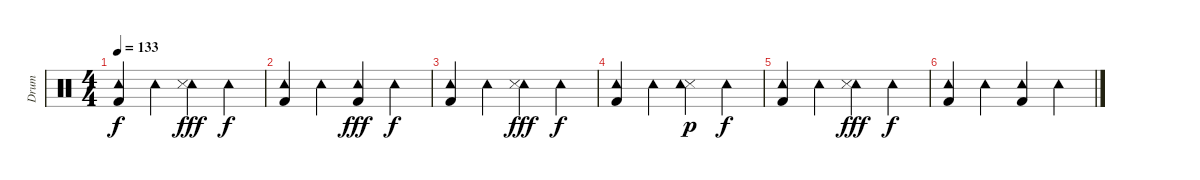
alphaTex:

\track ("Drum" "Drum") {instrument percussion}
\staff {score}
\articulation defaults
\ts (4 4)
\tempo 133
\clef neutral
\ks c
("Tambourine (hit)" "Kick (hit) 2").4{dy f} "Tambourine (hit)".4 ("Tambourine (hit)" "Snare (side stick) 3").4{dy fff} "Tambourine (hit)".4{dy f} |
("Tambourine (hit)" "Kick (hit) 2").4 "Tambourine (hit)".4 ("Kick (hit) 2" "Tambourine (hit)").4{dy fff} "Tambourine (hit)".4{dy f} |
("Tambourine (hit)" "Kick (hit) 2").4 "Tambourine (hit)".4 ("Tambourine (hit)" "Snare (side stick) 3").4{dy fff} "Tambourine (hit)".4{dy f} |
("Tambourine (hit)" "Kick (hit) 2").4 "Tambourine (hit)".4 ("Snare (side stick) 3" "Tambourine (hit)").4{dy p} "Tambourine (hit)".4{dy f} |
("Tambourine (hit)" "Kick (hit) 2").4 "Tambourine (hit)".4 ("Tambourine (hit)" "Snare (side stick) 3").4{dy fff} "Tambourine (hit)".4{dy f} |
("Tambourine (hit)" "Kick (hit) 2").4 "Tambourine (hit)".4 ("Kick (hit) 2" "Tambourine (hit)").4 "Tambourine (hit)".4
